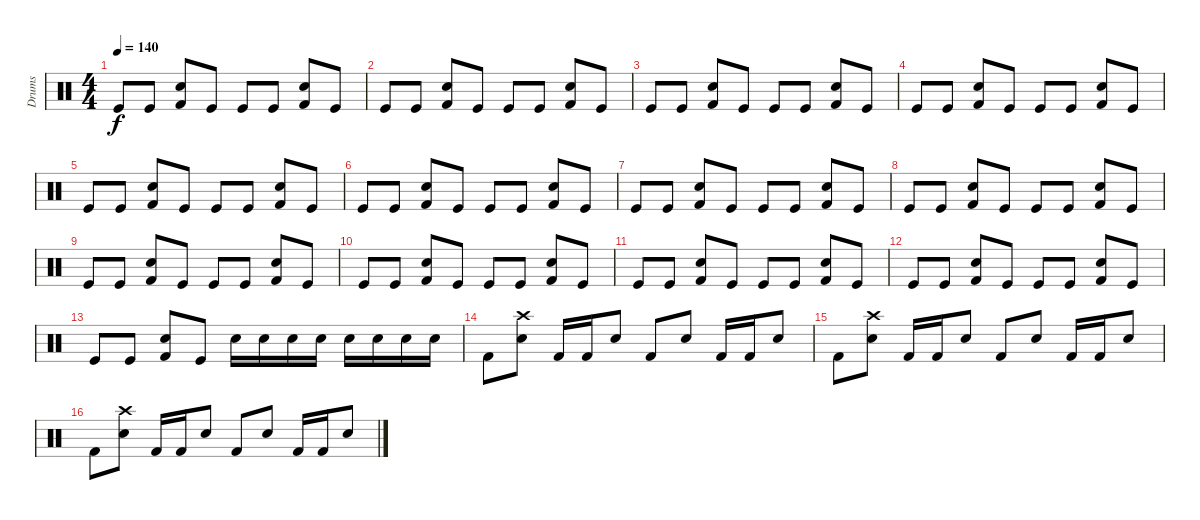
\track ("Drums" "Drums") {instrument percussion}
\staff {score}
\articulation defaults
\ts (4 4)
\tempo 140
\clef neutral
\ks c "Kick (hit)".8{dy f} "Kick (hit)".8
("Kick (hit) 2" "Electric Snare (hit)").8 "Kick (hit)".8 "Kick (hit)".8 "Kick (hit)".8 ("Kick (hit) 2" "Electric Snare (hit)").8 "Kick (hit)".8 |
"Kick (hit)".8 "Kick (hit)".8 ("Kick (hit) 2" "Electric Snare (hit)").8 "Kick (hit)".8 "Kick (hit)".8 "Kick (hit)".8 ("Kick (hit) 2" "Electric Snare (hit)").8 "Kick (hit)".8 |
"Kick (hit)".8 "Kick (hit)".8 ("Kick (hit) 2" "Electric Snare (hit)").8 "Kick (hit)".8 "Kick (hit)".8 "Kick (hit)".8 ("Kick (hit) 2" "Electric Snare (hit)").8 "Kick (hit)".8 |
"Kick (hit)".8 "Kick (hit)".8 ("Kick (hit) 2" "Electric Snare (hit)").8 "Kick (hit)".8 "Kick (hit)".8 "Kick (hit)".8 ("Kick (hit) 2" "Electric Snare (hit)").8 "Kick (hit)".8 |
"Kick (hit)".8 "Kick (hit)".8 ("Kick (hit) 2" "Electric Snare (hit)").8 "Kick (hit)".8 "Kick (hit)".8 "Kick (hit)".8 ("Kick (hit) 2" "Electric Snare (hit)").8 "Kick (hit)".8 |
"Kick (hit)".8 "Kick (hit)".8 ("Kick (hit) 2" "Electric Snare (hit)").8 "Kick (hit)".8 "Kick (hit)".8 "Kick (hit)".8 ("Kick (hit) 2" "Electric Snare (hit)").8 "Kick (hit)".8 |
"Kick (hit)".8 "Kick (hit)".8 ("Kick (hit) 2" "Electric Snare (hit)").8 "Kick (hit)".8 "Kick (hit)".8 "Kick (hit)".8 ("Kick (hit) 2" "Electric Snare (hit)").8 "Kick (hit)".8 |
"Kick (hit)".8 "Kick (hit)".8 ("Kick (hit) 2" "Electric Snare (hit)").8 "Kick (hit)".8 "Kick (hit)".8 "Kick (hit)".8 ("Kick (hit) 2" "Electric Snare (hit)").8 "Kick (hit)".8 |
"Kick (hit)".8 "Kick (hit)".8 ("Kick (hit) 2" "Electric Snare (hit)").8 "Kick (hit)".8 "Kick (hit)".8 "Kick (hit)".8 ("Kick (hit) 2" "Electric Snare (hit)").8 "Kick (hit)".8 |
"Kick (hit)".8 "Kick (hit)".8 ("Kick (hit) 2" "Electric Snare (hit)").8 "Kick (hit)".8 "Kick (hit)".8 "Kick (hit)".8 ("Kick (hit) 2" "Electric Snare (hit)").8 "Kick (hit)".8 |
"Kick (hit)".8 "Kick (hit)".8 ("Kick (hit) 2" "Electric Snare (hit)").8 "Kick (hit)".8 "Kick (hit)".8 "Kick (hit)".8 ("Kick (hit) 2" "Electric Snare (hit)").8 "Kick (hit)".8 |
"Kick (hit)".8 "Kick (hit)".8 ("Kick (hit) 2" "Electric Snare (hit)").8 "Kick (hit)".8 "Kick (hit)".8 "Kick (hit)".8 ("Kick (hit) 2" "Electric Snare (hit)").8 "Kick (hit)".8 |
"Kick (hit)".8 "Kick (hit)".8 ("Kick (hit) 2" "Electric Snare (hit)").8 "Kick (hit)".8 "Snare (hit) 2".16 "Snare (hit) 2".16 "Snare (hit) 2".16 "Snare (hit) 2".16 "Snare (hit) 2".16 "Snare (hit) 2".16 "Snare (hit) 2".16 "Snare (hit) 2".16 |
"Kick (hit) 2".8 ("Snare (hit) 2" "Crash high (hit)").8 "Kick (hit) 2".16 "Kick (hit) 2".16 "Snare (hit) 2".8 "Kick (hit) 2".8 "Snare (hit) 2".8 "Kick (hit) 2".16 "Kick (hit) 2".16 "Snare (hit) 2".8 |
"Kick (hit) 2".8 ("Snare (hit) 2" "Crash high (hit)").8 "Kick (hit) 2".16 "Kick (hit) 2".16 "Snare (hit) 2".8 "Kick (hit) 2".8 "Snare (hit) 2".8 "Kick (hit) 2".16 "Kick (hit) 2".16 "Snare (hit) 2".8 |
"Kick (hit) 2".8 ("Snare (hit) 2" "Crash high (hit)").8 "Kick (hit) 2".16 "Kick (hit) 2".16 "Snare (hit) 2".8 "Kick (hit) 2".8 "Snare (hit) 2".8 "Kick (hit) 2".16 "Kick (hit) 2".16 "Snare (hit) 2".8
